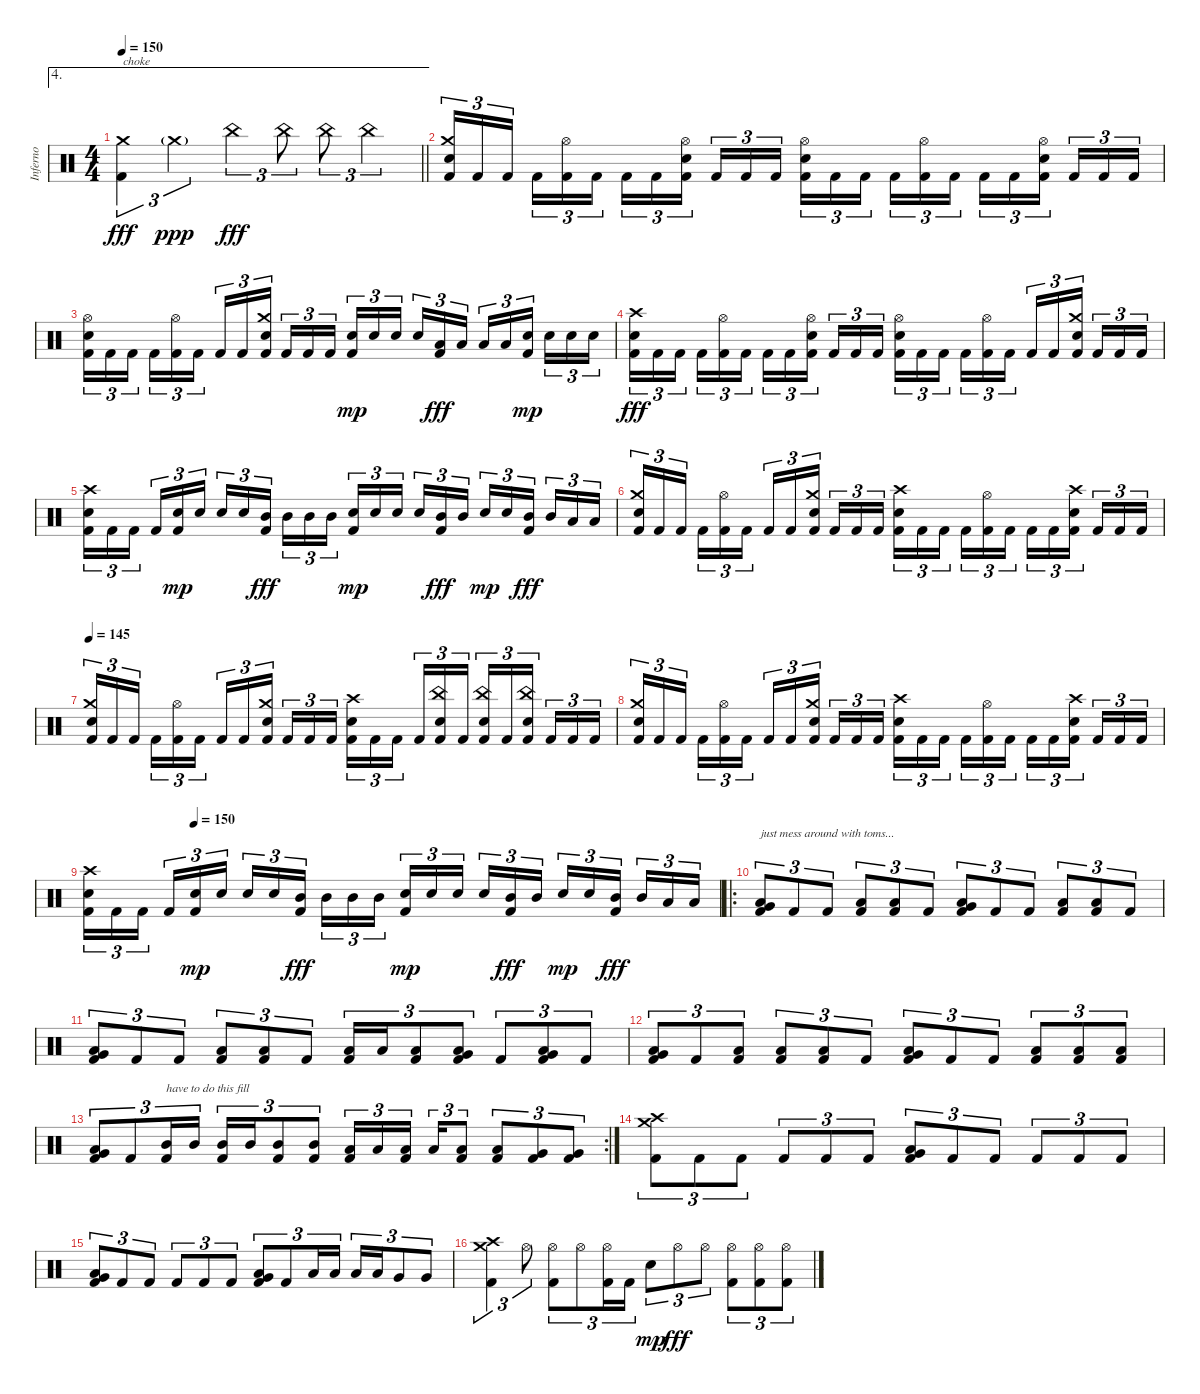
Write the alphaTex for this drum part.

\track ("Inferno" "Inferno") {instrument percussion}
\staff {score}
\articulation defaults
\ae 4
\ts (4 4)
\tempo 150
\clef neutral
\barLineRight lightlight
\ks c
("Kick (hit) 2" "Crash medium (hit)").4{tu (3 2) txt "choke" dy fff} "Crash medium (hit)"{g}.2{tu (3 2) dy ppp} "China (hit)".4{tu (3 2) dy fff} "China (hit)".8{tu (3 2)} "China (hit)".8{tu (3 2)} "China (hit)".4{tu (3 2)} |
("Kick (hit) 2" "Electric Snare (hit)" "Crash medium (hit)").16{tu (3 2)} "Kick (hit) 2".16{tu (3 2)} "Kick (hit) 2".16{tu (3 2) beam splitsecondary} "Kick (hit) 2".16{tu (3 2)} ("Kick (hit) 2" "Hi-Hat (open)").16{tu (3 2)} "Kick (hit) 2".16{tu (3 2)} "Kick (hit) 2".16{tu (3 2)} "Kick (hit) 2".16{tu (3 2)} ("Kick (hit) 2" "Electric Snare (hit)" "Hi-Hat (open)").16{tu (3 2) beam splitsecondary} "Kick (hit) 2".16{tu (3 2)} "Kick (hit) 2".16{tu (3 2)} "Kick (hit) 2".16{tu (3 2)} ("Kick (hit) 2" "Electric Snare (hit)" "Hi-Hat (open)").16{tu (3 2)} "Kick (hit) 2".16{tu (3 2)} "Kick (hit) 2".16{tu (3 2) beam splitsecondary} "Kick (hit) 2".16{tu (3 2)} ("Kick (hit) 2" "Hi-Hat (open)").16{tu (3 2)} "Kick (hit) 2".16{tu (3 2)} "Kick (hit) 2".16{tu (3 2)} "Kick (hit) 2".16{tu (3 2)} ("Kick (hit) 2" "Electric Snare (hit)" "Hi-Hat (open)").16{tu (3 2) beam splitsecondary} "Kick (hit) 2".16{tu (3 2)} "Kick (hit) 2".16{tu (3 2)} "Kick (hit) 2".16{tu (3 2)} |
("Kick (hit) 2" "Electric Snare (hit)" "Hi-Hat (open)").16{tu (3 2)} "Kick (hit) 2".16{tu (3 2)} "Kick (hit) 2".16{tu (3 2) beam splitsecondary} "Kick (hit) 2".16{tu (3 2)} ("Kick (hit) 2" "Hi-Hat (open)").16{tu (3 2)} "Kick (hit) 2".16{tu (3 2)} "Kick (hit) 2".16{tu (3 2)} "Kick (hit) 2".16{tu (3 2)} ("Kick (hit) 2" "Electric Snare (hit)" "Crash medium (hit)").16{tu (3 2) beam splitsecondary} "Kick (hit) 2".16{tu (3 2)} "Kick (hit) 2".16{tu (3 2)} "Kick (hit) 2".16{tu (3 2)} ("Kick (hit) 2" "Electric Snare (hit)").16{tu (3 2) dy mp} "Electric Snare (hit)".16{tu (3 2)} "Electric Snare (hit)".16{tu (3 2) beam splitsecondary} "Electric Snare (hit)".16{tu (3 2)} ("Kick (hit) 2" "Low Tom (hit)").16{tu (3 2) dy fff} "Low Tom (hit)".16{tu (3 2)} "Low Tom (hit)".16{tu (3 2)} "Low Tom (hit)".16{tu (3 2)} ("Kick (hit) 2" "Electric Snare (hit)").16{tu (3 2) dy mp beam splitsecondary} "Electric Snare (hit)".16{tu (3 2)} "Electric Snare (hit)".16{tu (3 2)} "Electric Snare (hit)".16{tu (3 2)} |
("Kick (hit) 2" "Electric Snare (hit)" "Crash high (hit)").16{tu (3 2) dy fff} "Kick (hit) 2".16{tu (3 2)} "Kick (hit) 2".16{tu (3 2) beam splitsecondary} "Kick (hit) 2".16{tu (3 2)} ("Kick (hit) 2" "Hi-Hat (open)").16{tu (3 2)} "Kick (hit) 2".16{tu (3 2)} "Kick (hit) 2".16{tu (3 2)} "Kick (hit) 2".16{tu (3 2)} ("Kick (hit) 2" "Electric Snare (hit)" "Hi-Hat (open)").16{tu (3 2) beam splitsecondary} "Kick (hit) 2".16{tu (3 2)} "Kick (hit) 2".16{tu (3 2)} "Kick (hit) 2".16{tu (3 2)} ("Kick (hit) 2" "Electric Snare (hit)" "Hi-Hat (open)").16{tu (3 2)} "Kick (hit) 2".16{tu (3 2)} "Kick (hit) 2".16{tu (3 2) beam splitsecondary} "Kick (hit) 2".16{tu (3 2)} ("Kick (hit) 2" "Hi-Hat (open)").16{tu (3 2)} "Kick (hit) 2".16{tu (3 2)} "Kick (hit) 2".16{tu (3 2)} "Kick (hit) 2".16{tu (3 2)} ("Kick (hit) 2" "Electric Snare (hit)" "Crash medium (hit)").16{tu (3 2) beam splitsecondary} "Kick (hit) 2".16{tu (3 2)} "Kick (hit) 2".16{tu (3 2)} "Kick (hit) 2".16{tu (3 2)} |
("Kick (hit) 2" "Electric Snare (hit)" "Crash high (hit)").16{tu (3 2)} "Kick (hit) 2".16{tu (3 2)} "Kick (hit) 2".16{tu (3 2) beam splitsecondary} "Kick (hit) 2".16{tu (3 2)} ("Kick (hit) 2" "Electric Snare (hit)").16{tu (3 2) dy mp} "Electric Snare (hit)".16{tu (3 2)} "Electric Snare (hit)".16{tu (3 2)} "Electric Snare (hit)".16{tu (3 2)} ("Kick (hit) 2" "Mid Tom (hit)").16{tu (3 2) dy fff beam splitsecondary} "Mid Tom (hit)".16{tu (3 2)} "Mid Tom (hit)".16{tu (3 2)} "Mid Tom (hit)".16{tu (3 2)} ("Kick (hit) 2" "Electric Snare (hit)").16{tu (3 2) dy mp} "Electric Snare (hit)".16{tu (3 2)} "Electric Snare (hit)".16{tu (3 2) beam splitsecondary} "Electric Snare (hit)".16{tu (3 2)} ("Kick (hit) 2" "Mid Tom (hit)").16{tu (3 2) dy fff} "Mid Tom (hit)".16{tu (3 2)} "Electric Snare (hit)".16{tu (3 2) dy mp} "Electric Snare (hit)".16{tu (3 2)} ("Kick (hit) 2" "Mid Tom (hit)").16{tu (3 2) dy fff beam splitsecondary} "Mid Tom (hit)".16{tu (3 2)} "Low Tom (hit)".16{tu (3 2)} "Low Tom (hit)".16{tu (3 2)} |
("Kick (hit) 2" "Electric Snare (hit)" "Crash medium (hit)").16{tu (3 2)} "Kick (hit) 2".16{tu (3 2)} "Kick (hit) 2".16{tu (3 2) beam splitsecondary} "Kick (hit) 2".16{tu (3 2)} ("Kick (hit) 2" "Hi-Hat (open)").16{tu (3 2)} "Kick (hit) 2".16{tu (3 2)} "Kick (hit) 2".16{tu (3 2)} "Kick (hit) 2".16{tu (3 2)} ("Kick (hit) 2" "Electric Snare (hit)" "Crash medium (hit)").16{tu (3 2) beam splitsecondary} "Kick (hit) 2".16{tu (3 2)} "Kick (hit) 2".16{tu (3 2)} "Kick (hit) 2".16{tu (3 2)} ("Kick (hit) 2" "Electric Snare (hit)" "Crash high (hit)").16{tu (3 2)} "Kick (hit) 2".16{tu (3 2)} "Kick (hit) 2".16{tu (3 2) beam splitsecondary} "Kick (hit) 2".16{tu (3 2)} ("Kick (hit) 2" "Hi-Hat (open)").16{tu (3 2)} "Kick (hit) 2".16{tu (3 2)} "Kick (hit) 2".16{tu (3 2)} "Kick (hit) 2".16{tu (3 2)} ("Kick (hit) 2" "Electric Snare (hit)" "Crash high (hit)").16{tu (3 2) beam splitsecondary} "Kick (hit) 2".16{tu (3 2)} "Kick (hit) 2".16{tu (3 2)} "Kick (hit) 2".16{tu (3 2)} |
\tempo 145
("Kick (hit) 2" "Electric Snare (hit)" "Crash medium (hit)").16{tu (3 2)} "Kick (hit) 2".16{tu (3 2)} "Kick (hit) 2".16{tu (3 2) beam splitsecondary} "Kick (hit) 2".16{tu (3 2)} ("Kick (hit) 2" "Hi-Hat (open)").16{tu (3 2)} "Kick (hit) 2".16{tu (3 2)} "Kick (hit) 2".16{tu (3 2)} "Kick (hit) 2".16{tu (3 2)} ("Kick (hit) 2" "Electric Snare (hit)" "Crash medium (hit)").16{tu (3 2) beam splitsecondary} "Kick (hit) 2".16{tu (3 2)} "Kick (hit) 2".16{tu (3 2)} "Kick (hit) 2".16{tu (3 2)} ("Kick (hit) 2" "Electric Snare (hit)" "Crash high (hit)").16{tu (3 2)} "Kick (hit) 2".16{tu (3 2)} "Kick (hit) 2".16{tu (3 2) beam splitsecondary} "Kick (hit) 2".16{tu (3 2)} ("Kick (hit) 2" "Electric Snare (hit)" "China (hit)").16{tu (3 2)} "Kick (hit) 2".16{tu (3 2)} ("Kick (hit) 2" "Electric Snare (hit)" "China (hit)").16{tu (3 2)} "Kick (hit) 2".16{tu (3 2)} ("Kick (hit) 2" "Electric Snare (hit)" "China (hit)").16{tu (3 2) beam splitsecondary} "Kick (hit) 2".16{tu (3 2)} "Kick (hit) 2".16{tu (3 2)} "Kick (hit) 2".16{tu (3 2)} |
("Kick (hit) 2" "Electric Snare (hit)" "Crash medium (hit)").16{tu (3 2)} "Kick (hit) 2".16{tu (3 2)} "Kick (hit) 2".16{tu (3 2) beam splitsecondary} "Kick (hit) 2".16{tu (3 2)} ("Kick (hit) 2" "Hi-Hat (open)").16{tu (3 2)} "Kick (hit) 2".16{tu (3 2)} "Kick (hit) 2".16{tu (3 2)} "Kick (hit) 2".16{tu (3 2)} ("Kick (hit) 2" "Electric Snare (hit)" "Crash medium (hit)").16{tu (3 2) beam splitsecondary} "Kick (hit) 2".16{tu (3 2)} "Kick (hit) 2".16{tu (3 2)} "Kick (hit) 2".16{tu (3 2)} ("Kick (hit) 2" "Electric Snare (hit)" "Crash high (hit)").16{tu (3 2)} "Kick (hit) 2".16{tu (3 2)} "Kick (hit) 2".16{tu (3 2) beam splitsecondary} "Kick (hit) 2".16{tu (3 2)} ("Kick (hit) 2" "Hi-Hat (open)").16{tu (3 2)} "Kick (hit) 2".16{tu (3 2)} "Kick (hit) 2".16{tu (3 2)} "Kick (hit) 2".16{tu (3 2)} ("Kick (hit) 2" "Electric Snare (hit)" "Crash high (hit)").16{tu (3 2) beam splitsecondary} "Kick (hit) 2".16{tu (3 2)} "Kick (hit) 2".16{tu (3 2)} "Kick (hit) 2".16{tu (3 2)} |
\tempo (150 0.16666666666666666)
("Kick (hit) 2" "Electric Snare (hit)" "Crash high (hit)").16{tu (3 2)} "Kick (hit) 2".16{tu (3 2)} "Kick (hit) 2".16{tu (3 2) beam splitsecondary} "Kick (hit) 2".16{tu (3 2)} ("Kick (hit) 2" "Electric Snare (hit)").16{tu (3 2) dy mp} "Electric Snare (hit)".16{tu (3 2)} "Electric Snare (hit)".16{tu (3 2)} "Electric Snare (hit)".16{tu (3 2)} ("Kick (hit) 2" "Mid Tom (hit)").16{tu (3 2) dy fff beam splitsecondary} "Mid Tom (hit)".16{tu (3 2)} "Mid Tom (hit)".16{tu (3 2)} "Mid Tom (hit)".16{tu (3 2)} ("Kick (hit) 2" "Electric Snare (hit)").16{tu (3 2) dy mp} "Electric Snare (hit)".16{tu (3 2)} "Electric Snare (hit)".16{tu (3 2) beam splitsecondary} "Electric Snare (hit)".16{tu (3 2)} ("Kick (hit) 2" "Mid Tom (hit)").16{tu (3 2) dy fff} "Mid Tom (hit)".16{tu (3 2)} "Electric Snare (hit)".16{tu (3 2) dy mp} "Electric Snare (hit)".16{tu (3 2)} ("Kick (hit) 2" "Mid Tom (hit)").16{tu (3 2) dy fff beam splitsecondary} "Mid Tom (hit)".16{tu (3 2)} "Low Tom (hit)".16{tu (3 2)} "Low Tom (hit)".16{tu (3 2)} |
\ro
("Kick (hit) 2" "Low Tom (hit)" "Very Low Tom (hit)").8{tu (3 2) txt "just mess around with toms..."} "Kick (hit) 2".8{tu (3 2)} "Kick (hit) 2".8{tu (3 2)} ("Kick (hit) 2" "Low Tom (hit)").8{tu (3 2)} ("Kick (hit) 2" "Low Tom (hit)").8{tu (3 2)} "Kick (hit) 2".8{tu (3 2)} ("Kick (hit) 2" "Low Tom (hit)" "Very Low Tom (hit)").8{tu (3 2)} "Kick (hit) 2".8{tu (3 2)} "Kick (hit) 2".8{tu (3 2)} ("Kick (hit) 2" "Low Tom (hit)").8{tu (3 2)} ("Kick (hit) 2" "Low Tom (hit)").8{tu (3 2)} "Kick (hit) 2".8{tu (3 2)} |
("Kick (hit) 2" "Low Tom (hit)" "Very Low Tom (hit)").8{tu (3 2)} "Kick (hit) 2".8{tu (3 2)} "Kick (hit) 2".8{tu (3 2)} ("Kick (hit) 2" "Low Tom (hit)").8{tu (3 2)} ("Kick (hit) 2" "Low Tom (hit)").8{tu (3 2)} "Kick (hit) 2".8{tu (3 2)} ("Kick (hit) 2" "Low Tom (hit)").16{tu (3 2)} "Low Tom (hit)".16{tu (3 2)} ("Kick (hit) 2" "Low Tom (hit)").8{tu (3 2)} ("Kick (hit) 2" "Low Tom (hit)" "Very Low Tom (hit)").8{tu (3 2)} "Kick (hit) 2".8{tu (3 2)} ("Kick (hit) 2" "Low Tom (hit)" "Very Low Tom (hit)").8{tu (3 2)} "Kick (hit) 2".8{tu (3 2)} |
("Kick (hit) 2" "Low Tom (hit)" "Very Low Tom (hit)").8{tu (3 2)} "Kick (hit) 2".8{tu (3 2)} ("Kick (hit) 2" "Low Tom (hit)").8{tu (3 2)} ("Kick (hit) 2" "Low Tom (hit)").8{tu (3 2)} ("Kick (hit) 2" "Low Tom (hit)").8{tu (3 2)} "Kick (hit) 2".8{tu (3 2)} ("Kick (hit) 2" "Low Tom (hit)" "Very Low Tom (hit)").8{tu (3 2)} "Kick (hit) 2".8{tu (3 2)} "Kick (hit) 2".8{tu (3 2)} ("Kick (hit) 2" "Low Tom (hit)").8{tu (3 2)} ("Kick (hit) 2" "Low Tom (hit)").8{tu (3 2)} ("Kick (hit) 2" "Low Tom (hit)").8{tu (3 2)} |
\rc 2
("Kick (hit) 2" "Low Tom (hit)" "Very Low Tom (hit)").8{tu (3 2)} "Kick (hit) 2".8{tu (3 2)} ("Kick (hit) 2" "Mid Tom (hit)").16{tu (3 2) txt "have to do this fill"} "Mid Tom (hit)".16{tu (3 2)} ("Kick (hit) 2" "Mid Tom (hit)").16{tu (3 2)} "Mid Tom (hit)".16{tu (3 2)} ("Kick (hit) 2" "Mid Tom (hit)").8{tu (3 2)} ("Kick (hit) 2" "Mid Tom (hit)").8{tu (3 2)} ("Kick (hit) 2" "Low Tom (hit)").16{tu (3 2)} "Low Tom (hit)".16{tu (3 2)} ("Kick (hit) 2" "Low Tom (hit)").16{tu (3 2) beam splitsecondary} "Low Tom (hit)".16{tu (3 2)} ("Kick (hit) 2" "Low Tom (hit)").8{tu (3 2)} ("Kick (hit) 2" "Low Tom (hit)").8{tu (3 2)} ("Kick (hit) 2" "Very Low Tom (hit)").8{tu (3 2)} ("Kick (hit) 2" "Very Low Tom (hit)").8{tu (3 2)} |
("Kick (hit) 2" "Crash medium (hit)" "Crash high (hit)").8{tu (3 2)} "Kick (hit) 2".8{tu (3 2)} "Kick (hit) 2".8{tu (3 2)} "Kick (hit) 2".8{tu (3 2)} "Kick (hit) 2".8{tu (3 2)} "Kick (hit) 2".8{tu (3 2)} ("Kick (hit) 2" "Very Low Tom (hit)" "Low Tom (hit)").8{tu (3 2)} "Kick (hit) 2".8{tu (3 2)} "Kick (hit) 2".8{tu (3 2)} "Kick (hit) 2".8{tu (3 2)} "Kick (hit) 2".8{tu (3 2)} "Kick (hit) 2".8{tu (3 2)} |
("Kick (hit) 2" "Very Low Tom (hit)" "Low Tom (hit)").8{tu (3 2)} "Kick (hit) 2".8{tu (3 2)} "Kick (hit) 2".8{tu (3 2)} "Kick (hit) 2".8{tu (3 2)} "Kick (hit) 2".8{tu (3 2)} "Kick (hit) 2".8{tu (3 2)} ("Kick (hit) 2" "Very Low Tom (hit)" "Low Tom (hit)").8{tu (3 2)} "Kick (hit) 2".8{tu (3 2)} "Low Tom (hit)".16{tu (3 2)} "Low Tom (hit)".16{tu (3 2)} "Low Tom (hit)".16{tu (3 2)} "Low Tom (hit)".16{tu (3 2)} "Very Low Tom (hit)".8{tu (3 2)} "Very Low Tom (hit)".8{tu (3 2)} |
("Kick (hit) 2" "Crash medium (hit)" "Crash high (hit)").4{tu (3 2)} "Hi-Hat (open)".8{tu (3 2)} ("Kick (hit) 2" "Hi-Hat (open)").8{tu (3 2)} "Hi-Hat (open)".8{tu (3 2)} ("Kick (hit) 2" "Hi-Hat (open)").16{tu (3 2)} "Kick (hit) 2".16{tu (3 2)} "Electric Snare (hit)".8{tu (3 2) dy mp} "Hi-Hat (open)".8{tu (3 2) dy fff} "Hi-Hat (open)".8{tu (3 2)} ("Kick (hit) 2" "Hi-Hat (open)").8{tu (3 2)} ("Kick (hit) 2" "Hi-Hat (open)").8{tu (3 2)} ("Kick (hit) 2" "Hi-Hat (open)").8{tu (3 2)}
